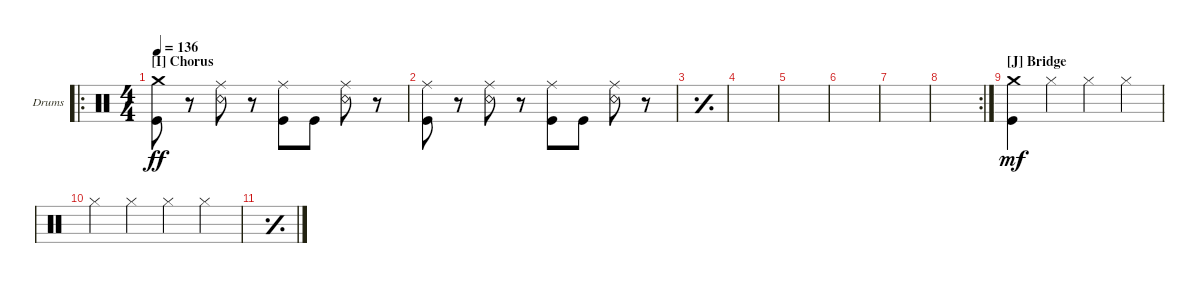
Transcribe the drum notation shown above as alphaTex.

\defaultSystemsLayout 4
\bracketExtendMode groupsimilarinstruments
\firstSystemTrackNameOrientation horizontal
\otherSystemsTrackNameOrientation horizontal
\track ("Drums" "Drums") {instrument percussion}
\staff {score}
\articulation defaults
\ro
\ts (4 4)
\section ("I" "Chorus")
\tempo 136
\clef neutral
\ks c
("Kick (hit)" "Crash medium (hit)").8{dy ff} r.8 ("Ride (middle)" "Snare (rim shot)").8 r.8 ("Ride (middle)" "Kick (hit)").8 "Kick (hit)".8 ("Ride (middle)" "Snare (rim shot)").8 r.8 |
("Kick (hit)" "Ride (middle)").8 r.8 ("Ride (middle)" "Snare (rim shot)").8 r.8 ("Ride (middle)" "Kick (hit)").8 "Kick (hit)".8 ("Ride (middle)" "Snare (rim shot)").8 r.8 |
\simile simple
|
|
|
|
|
\rc 2
|
\section ("J" "Bridge")
\simile none
("Crash medium (hit)" "Kick (hit)").4{dy mf} "Hi-Hat (closed)".4 "Hi-Hat (closed)".4 "Hi-Hat (closed)".4 |
"Hi-Hat (closed)".4 "Hi-Hat (closed)".4 "Hi-Hat (closed)".4 "Hi-Hat (closed)".4 |
\simile simple
